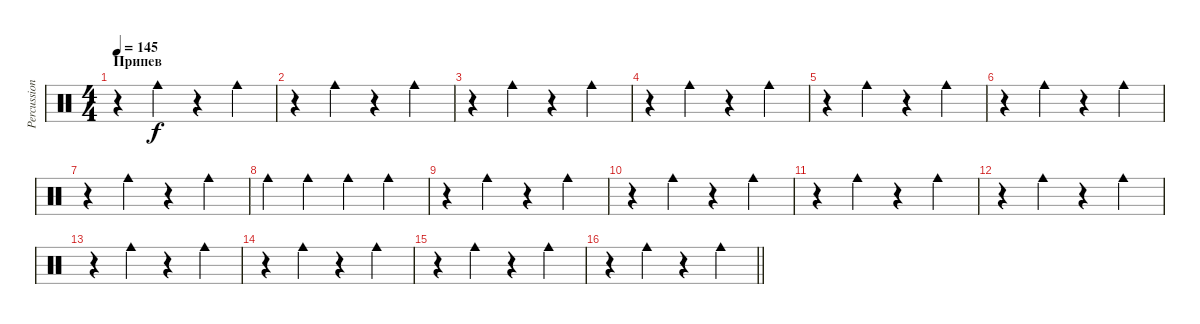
\track ("Percussion" "Percussion") {instrument percussion}
\staff {score}
\articulation defaults
\ts (4 4)
\section ("" "Припев")
\tempo 145
\clef neutral
\ks c
r.4{dy f} "Cowbell medium (hit)".4 r.4 "Cowbell medium (hit)".4 |
r.4 "Cowbell medium (hit)".4 r.4 "Cowbell medium (hit)".4 |
r.4 "Cowbell medium (hit)".4 r.4 "Cowbell medium (hit)".4 |
r.4 "Cowbell medium (hit)".4 r.4 "Cowbell medium (hit)".4 |
r.4 "Cowbell medium (hit)".4 r.4 "Cowbell medium (hit)".4 |
r.4 "Cowbell medium (hit)".4 r.4 "Cowbell medium (hit)".4 |
r.4 "Cowbell medium (hit)".4 r.4 "Cowbell medium (hit)".4 |
"Cowbell medium (hit)".4 "Cowbell medium (hit)".4 "Cowbell medium (hit)".4 "Cowbell medium (hit)".4 |
r.4 "Cowbell medium (hit)".4 r.4 "Cowbell medium (hit)".4 |
r.4 "Cowbell medium (hit)".4 r.4 "Cowbell medium (hit)".4 |
r.4 "Cowbell medium (hit)".4 r.4 "Cowbell medium (hit)".4 |
r.4 "Cowbell medium (hit)".4 r.4 "Cowbell medium (hit)".4 |
r.4 "Cowbell medium (hit)".4 r.4 "Cowbell medium (hit)".4 |
r.4 "Cowbell medium (hit)".4 r.4 "Cowbell medium (hit)".4 |
r.4 "Cowbell medium (hit)".4 r.4 "Cowbell medium (hit)".4 |
\barLineRight lightlight
r.4 "Cowbell medium (hit)".4 r.4 "Cowbell medium (hit)".4
